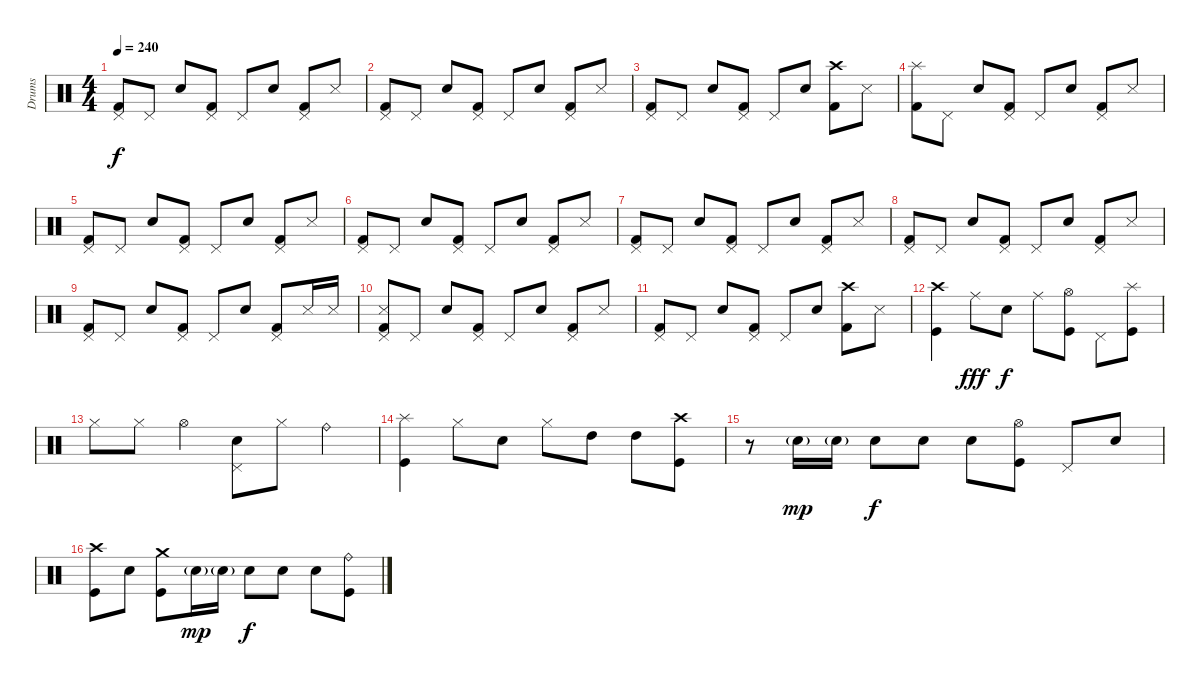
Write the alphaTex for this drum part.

\track ("Drums" "Drums") {instrument percussion}
\staff {score}
\articulation defaults
\ts (4 4)
\tempo 240
\clef neutral
\ks c
("Pedal Hi-Hat (hit)" "Kick (hit) 2").8{dy f} "Pedal Hi-Hat (hit)".8 "Electric Snare (hit)".8 ("Pedal Hi-Hat (hit)" "Kick (hit) 2").8 "Pedal Hi-Hat (hit)".8 "Electric Snare (hit)".8 ("Pedal Hi-Hat (hit)" "Kick (hit) 2").8 "Snare (side stick) 3".8 |
("Pedal Hi-Hat (hit)" "Kick (hit) 2").8 "Pedal Hi-Hat (hit)".8 "Electric Snare (hit)".8 ("Pedal Hi-Hat (hit)" "Kick (hit) 2").8 "Pedal Hi-Hat (hit)".8 "Electric Snare (hit)".8 ("Pedal Hi-Hat (hit)" "Kick (hit) 2").8 "Snare (side stick) 3".8 |
("Pedal Hi-Hat (hit)" "Kick (hit) 2").8 "Pedal Hi-Hat (hit)".8 "Electric Snare (hit)".8 ("Pedal Hi-Hat (hit)" "Kick (hit) 2").8 "Pedal Hi-Hat (hit)".8 "Electric Snare (hit)".8 ("Crash high (hit)" "Kick (hit) 2").8 "Snare (side stick) 3".8 |
("Splash (hit)" "Kick (hit) 2").8 "Pedal Hi-Hat (hit)".8 "Electric Snare (hit)".8 ("Pedal Hi-Hat (hit)" "Kick (hit) 2").8 "Pedal Hi-Hat (hit)".8 "Electric Snare (hit)".8 ("Pedal Hi-Hat (hit)" "Kick (hit) 2").8 "Snare (side stick) 3".8 |
("Pedal Hi-Hat (hit)" "Kick (hit) 2").8 "Pedal Hi-Hat (hit)".8 "Electric Snare (hit)".8 ("Pedal Hi-Hat (hit)" "Kick (hit) 2").8 "Pedal Hi-Hat (hit)".8 "Electric Snare (hit)".8 ("Pedal Hi-Hat (hit)" "Kick (hit) 2").8 "Snare (side stick) 3".8 |
("Pedal Hi-Hat (hit)" "Kick (hit) 2").8 "Pedal Hi-Hat (hit)".8 "Electric Snare (hit)".8 ("Pedal Hi-Hat (hit)" "Kick (hit) 2").8 "Pedal Hi-Hat (hit)".8 "Electric Snare (hit)".8 ("Pedal Hi-Hat (hit)" "Kick (hit) 2").8 "Snare (side stick) 3".8 |
("Pedal Hi-Hat (hit)" "Kick (hit) 2").8 "Pedal Hi-Hat (hit)".8 "Electric Snare (hit)".8 ("Pedal Hi-Hat (hit)" "Kick (hit) 2").8 "Pedal Hi-Hat (hit)".8 "Electric Snare (hit)".8 ("Pedal Hi-Hat (hit)" "Kick (hit) 2").8 "Snare (side stick) 3".8 |
("Pedal Hi-Hat (hit)" "Kick (hit) 2").8 "Pedal Hi-Hat (hit)".8 "Electric Snare (hit)".8 ("Pedal Hi-Hat (hit)" "Kick (hit) 2").8 "Pedal Hi-Hat (hit)".8 "Electric Snare (hit)".8 ("Pedal Hi-Hat (hit)" "Kick (hit) 2").8 "Snare (side stick) 3".8 |
("Pedal Hi-Hat (hit)" "Kick (hit) 2").8 "Pedal Hi-Hat (hit)".8 "Electric Snare (hit)".8 ("Pedal Hi-Hat (hit)" "Kick (hit) 2").8 "Pedal Hi-Hat (hit)".8 "Electric Snare (hit)".8 ("Pedal Hi-Hat (hit)" "Kick (hit) 2").8 "Snare (side stick) 3".16 "Snare (side stick) 3".16 |
("Pedal Hi-Hat (hit)" "Snare (side stick) 3" "Kick (hit) 2").8 "Pedal Hi-Hat (hit)".8 "Electric Snare (hit)".8 ("Pedal Hi-Hat (hit)" "Kick (hit) 2").8 "Pedal Hi-Hat (hit)".8 "Electric Snare (hit)".8 ("Pedal Hi-Hat (hit)" "Kick (hit) 2").8 "Snare (side stick) 3".8 |
("Pedal Hi-Hat (hit)" "Kick (hit) 2").8 "Pedal Hi-Hat (hit)".8 "Electric Snare (hit)".8 ("Pedal Hi-Hat (hit)" "Kick (hit) 2").8 "Pedal Hi-Hat (hit)".8 "Electric Snare (hit)".8 ("Crash high (hit)" "Kick (hit) 2").8 "Snare (side stick) 3".8 |
("Crash high (hit)" "Kick (hit)").4 "Ride (middle)".8{dy fff} "Electric Snare (hit)".8{dy f} "Ride (middle)".8 ("Hi-Hat (open)" "Kick (hit)").8 "Pedal Hi-Hat (hit)".8 ("Splash (hit)" "Kick (hit)").8 |
"Hi-Hat (closed)".8 "Hi-Hat (closed)".8 "Hi-Hat (open)".4 ("Electric Snare (hit)" "Pedal Hi-Hat (hit)").8 "Hi-Hat (closed)".8 "Ride (bell)".4 |
("Splash (hit)" "Kick (hit)").4 "Hi-Hat (closed)".8 "Electric Snare (hit)".8 "Hi-Hat (closed)".8 "High Tom (hit)".8 "High Tom (hit)".8 ("Crash high (hit)" "Kick (hit)").8 |
r.8 "Electric Snare (hit)"{g}.16{dy mp} "Electric Snare (hit)"{g}.16 "Electric Snare (hit)".8{dy f} "Electric Snare (hit)".8 "Electric Snare (hit)".8 ("Hi-Hat (open)" "Kick (hit)").8 "Pedal Hi-Hat (hit)".8 "Electric Snare (hit)".8 |
("Crash high (hit)" "Kick (hit)").8 "Electric Snare (hit)".8 ("Crash medium (hit)" "Kick (hit)").8 "Electric Snare (hit)"{g}.16{dy mp} "Electric Snare (hit)"{g}.16 "Electric Snare (hit)".8{dy f} "Electric Snare (hit)".8 "Electric Snare (hit)".8 ("Ride (bell)" "Kick (hit)").8
